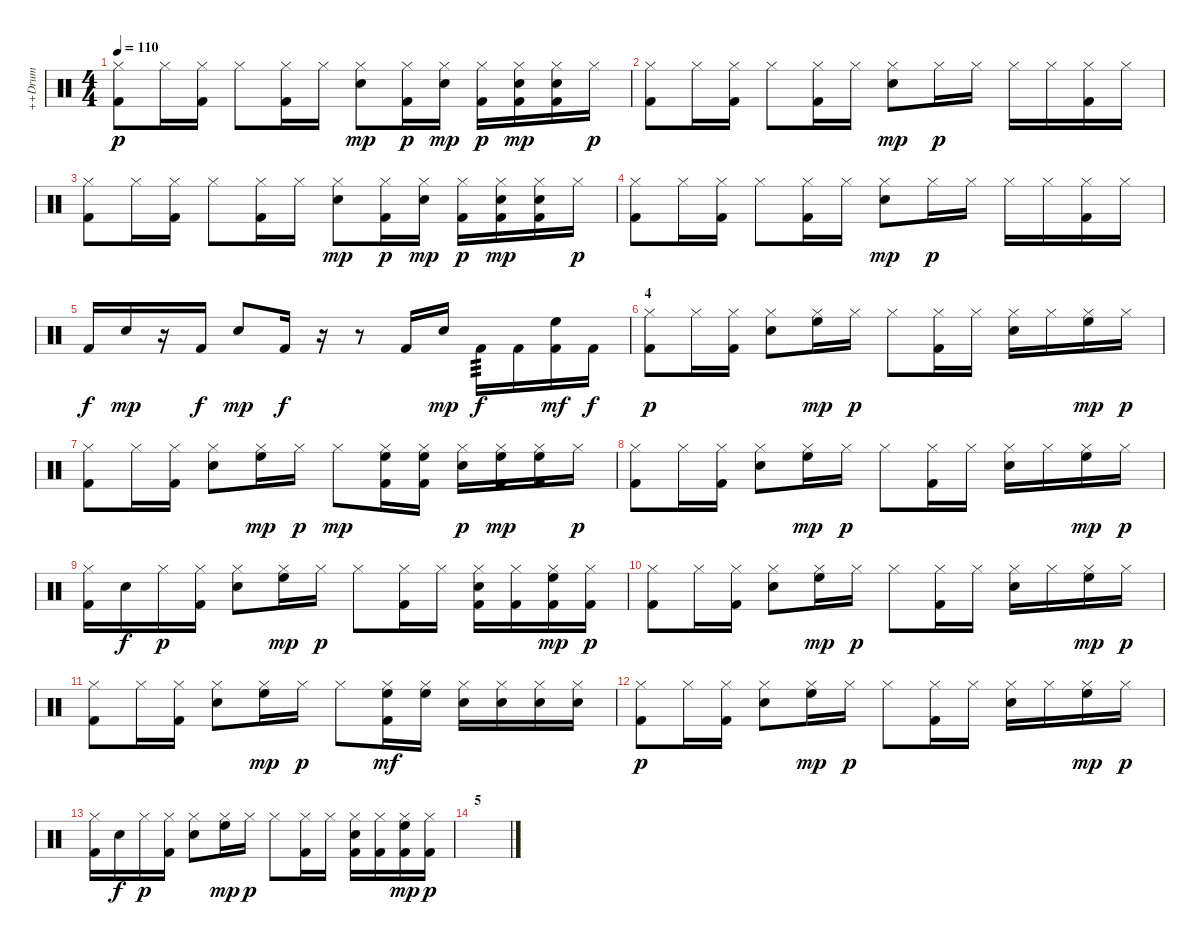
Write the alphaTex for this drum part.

\track ("++Drum" "++Drum") {instrument percussion}
\staff {score}
\articulation defaults
\ts (4 4)
\tempo 110
\clef neutral
\ks c
("Hi-Hat (closed)" "Kick (hit) 2").8{dy p} "Hi-Hat (closed)".16 ("Hi-Hat (closed)" "Kick (hit) 2").16 "Hi-Hat (closed)".8 ("Hi-Hat (closed)" "Kick (hit) 2").16 "Hi-Hat (closed)".16 ("Hi-Hat (closed)" "Electric Snare (hit)").8{dy mp} ("Hi-Hat (closed)" "Kick (hit) 2").16{dy p} ("Hi-Hat (closed)" "Electric Snare (hit)").16{dy mp} ("Hi-Hat (closed)" "Kick (hit) 2").16{dy p} ("Hi-Hat (closed)" "Electric Snare (hit)" "Kick (hit) 2").16{dy mp} ("Hi-Hat (closed)" "Electric Snare (hit)" "Kick (hit) 2").16 "Hi-Hat (closed)".16{dy p} |
("Hi-Hat (closed)" "Kick (hit) 2").8 "Hi-Hat (closed)".16 ("Hi-Hat (closed)" "Kick (hit) 2").16 "Hi-Hat (closed)".8 ("Hi-Hat (closed)" "Kick (hit) 2").16 "Hi-Hat (closed)".16 ("Hi-Hat (closed)" "Electric Snare (hit)").8{dy mp} "Hi-Hat (closed)".16{dy p} "Hi-Hat (closed)".16 "Hi-Hat (closed)".16 "Hi-Hat (closed)".16 ("Hi-Hat (closed)" "Kick (hit) 2").16 "Hi-Hat (closed)".16 |
("Hi-Hat (closed)" "Kick (hit) 2").8 "Hi-Hat (closed)".16 ("Hi-Hat (closed)" "Kick (hit) 2").16 "Hi-Hat (closed)".8 ("Hi-Hat (closed)" "Kick (hit) 2").16 "Hi-Hat (closed)".16 ("Hi-Hat (closed)" "Electric Snare (hit)").8{dy mp} ("Hi-Hat (closed)" "Kick (hit) 2").16{dy p} ("Hi-Hat (closed)" "Electric Snare (hit)").16{dy mp} ("Hi-Hat (closed)" "Kick (hit) 2").16{dy p} ("Hi-Hat (closed)" "Electric Snare (hit)" "Kick (hit) 2").16{dy mp} ("Hi-Hat (closed)" "Electric Snare (hit)" "Kick (hit) 2").16 "Hi-Hat (closed)".16{dy p} |
("Hi-Hat (closed)" "Kick (hit) 2").8 "Hi-Hat (closed)".16 ("Hi-Hat (closed)" "Kick (hit) 2").16 "Hi-Hat (closed)".8 ("Hi-Hat (closed)" "Kick (hit) 2").16 "Hi-Hat (closed)".16 ("Hi-Hat (closed)" "Electric Snare (hit)").8{dy mp} "Hi-Hat (closed)".16{dy p} "Hi-Hat (closed)".16 "Hi-Hat (closed)".16 "Hi-Hat (closed)".16 ("Hi-Hat (closed)" "Kick (hit) 2").16 "Hi-Hat (closed)".16 |
"Kick (hit) 2".16{dy f} "Electric Snare (hit)".16{dy mp} r.16 "Kick (hit) 2".16{dy f} "Electric Snare (hit)".8{dy mp} "Kick (hit) 2".16{dy f} r.16 r.8 "Kick (hit) 2".16 "Electric Snare (hit)".16{dy mp} "Kick (hit) 2".16{tp 3 dy f} "Kick (hit) 2".16 ("High Floor Tom (hit)" "Kick (hit) 2").16{dy mf} "Kick (hit) 2".16{dy f} |
\section ("" "4")
("Hi-Hat (closed)" "Kick (hit) 2").8{dy p} "Hi-Hat (closed)".16 ("Hi-Hat (closed)" "Kick (hit) 2").16 ("Hi-Hat (closed)" "Electric Snare (hit)").8 ("Hi-Hat (closed)" "High Floor Tom (hit)").16{dy mp} "Hi-Hat (closed)".16{dy p} "Hi-Hat (closed)".8 ("Hi-Hat (closed)" "Kick (hit) 2").16 "Hi-Hat (closed)".16 ("Hi-Hat (closed)" "Electric Snare (hit)").16 "Hi-Hat (closed)".16 ("Hi-Hat (closed)" "High Floor Tom (hit)").16{dy mp} "Hi-Hat (closed)".16{dy p} |
("Hi-Hat (closed)" "Kick (hit) 2").8 "Hi-Hat (closed)".16 ("Hi-Hat (closed)" "Kick (hit) 2").16 ("Hi-Hat (closed)" "Electric Snare (hit)").8 ("Hi-Hat (closed)" "High Floor Tom (hit)").16{dy mp} "Hi-Hat (closed)".16{dy p} "Hi-Hat (closed)".8{dy mp} ("Hi-Hat (closed)" "High Floor Tom (hit)" "Kick (hit) 2").16 ("Hi-Hat (closed)" "High Floor Tom (hit)" "Kick (hit) 2").16 ("Hi-Hat (closed)" "Electric Snare (hit)").16{dy p} ("Hi-Hat (closed)" "High Floor Tom (hit)" "Kick (hit) 2").16{dy mp} ("Hi-Hat (closed)" "High Floor Tom (hit)" "Kick (hit) 2").16 "Hi-Hat (closed)".16{dy p} |
("Hi-Hat (closed)" "Kick (hit) 2").8 "Hi-Hat (closed)".16 ("Hi-Hat (closed)" "Kick (hit) 2").16 ("Hi-Hat (closed)" "Electric Snare (hit)").8 ("Hi-Hat (closed)" "High Floor Tom (hit)").16{dy mp} "Hi-Hat (closed)".16{dy p} "Hi-Hat (closed)".8 ("Hi-Hat (closed)" "Kick (hit) 2").16 "Hi-Hat (closed)".16 ("Hi-Hat (closed)" "Electric Snare (hit)").16 "Hi-Hat (closed)".16 ("Hi-Hat (closed)" "High Floor Tom (hit)").16{dy mp} "Hi-Hat (closed)".16{dy p} |
("Hi-Hat (closed)" "Kick (hit) 2").16 "Electric Snare (hit)".16{dy f} "Hi-Hat (closed)".16{dy p} ("Hi-Hat (closed)" "Kick (hit) 2").16 ("Hi-Hat (closed)" "Electric Snare (hit)").8 ("Hi-Hat (closed)" "High Floor Tom (hit)").16{dy mp} "Hi-Hat (closed)".16{dy p} "Hi-Hat (closed)".8 ("Hi-Hat (closed)" "Kick (hit) 2").16 "Hi-Hat (closed)".16 ("Hi-Hat (closed)" "Electric Snare (hit)" "Kick (hit) 2").16 ("Hi-Hat (closed)" "Kick (hit) 2").16 ("Hi-Hat (closed)" "High Floor Tom (hit)" "Kick (hit) 2").16{dy mp} ("Hi-Hat (closed)" "Kick (hit) 2").16{dy p} |
("Hi-Hat (closed)" "Kick (hit) 2").8 "Hi-Hat (closed)".16 ("Hi-Hat (closed)" "Kick (hit) 2").16 ("Hi-Hat (closed)" "Electric Snare (hit)").8 ("Hi-Hat (closed)" "High Floor Tom (hit)").16{dy mp} "Hi-Hat (closed)".16{dy p} "Hi-Hat (closed)".8 ("Hi-Hat (closed)" "Kick (hit) 2").16 "Hi-Hat (closed)".16 ("Hi-Hat (closed)" "Electric Snare (hit)").16 "Hi-Hat (closed)".16 ("Hi-Hat (closed)" "High Floor Tom (hit)").16{dy mp} "Hi-Hat (closed)".16{dy p} |
("Hi-Hat (closed)" "Kick (hit) 2").8 "Hi-Hat (closed)".16 ("Hi-Hat (closed)" "Kick (hit) 2").16 ("Hi-Hat (closed)" "Electric Snare (hit)").8 ("Hi-Hat (closed)" "High Floor Tom (hit)").16{dy mp} "Hi-Hat (closed)".16{dy p} "Hi-Hat (closed)".8 ("Hi-Hat (closed)" "High Floor Tom (hit)" "Kick (hit) 2").16{dy mf} ("Hi-Hat (closed)" "High Floor Tom (hit)").16 ("Hi-Hat (closed)" "Electric Snare (hit)").16 ("Hi-Hat (closed)" "Electric Snare (hit)").16 ("Hi-Hat (closed)" "Electric Snare (hit)").16 ("Hi-Hat (closed)" "Electric Snare (hit)").16 |
("Hi-Hat (closed)" "Kick (hit) 2").8{dy p} "Hi-Hat (closed)".16 ("Hi-Hat (closed)" "Kick (hit) 2").16 ("Hi-Hat (closed)" "Electric Snare (hit)").8 ("Hi-Hat (closed)" "High Floor Tom (hit)").16{dy mp} "Hi-Hat (closed)".16{dy p} "Hi-Hat (closed)".8 ("Hi-Hat (closed)" "Kick (hit) 2").16 "Hi-Hat (closed)".16 ("Hi-Hat (closed)" "Electric Snare (hit)").16 "Hi-Hat (closed)".16 ("Hi-Hat (closed)" "High Floor Tom (hit)").16{dy mp} "Hi-Hat (closed)".16{dy p} |
("Hi-Hat (closed)" "Kick (hit) 2").16 "Electric Snare (hit)".16{dy f} "Hi-Hat (closed)".16{dy p} ("Hi-Hat (closed)" "Kick (hit) 2").16 ("Hi-Hat (closed)" "Electric Snare (hit)").8 ("Hi-Hat (closed)" "High Floor Tom (hit)").16{dy mp} "Hi-Hat (closed)".16{dy p} "Hi-Hat (closed)".8 ("Hi-Hat (closed)" "Kick (hit) 2").16 "Hi-Hat (closed)".16 ("Hi-Hat (closed)" "Electric Snare (hit)" "Kick (hit) 2").16 ("Hi-Hat (closed)" "Kick (hit) 2").16 ("Hi-Hat (closed)" "High Floor Tom (hit)" "Kick (hit) 2").16{dy mp} ("Hi-Hat (closed)" "Kick (hit) 2").16{dy p} |
\section ("" "5")
